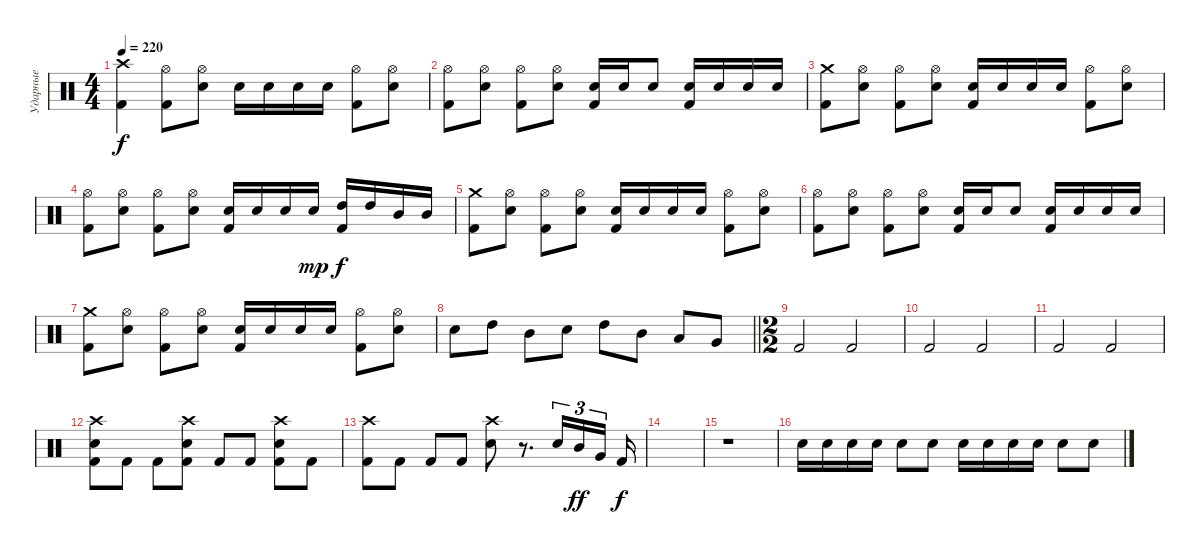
\track ("Ударные" "Ударные") {instrument percussion}
\staff {score}
\articulation defaults
\ts (4 4)
\tempo 220
\clef neutral
\ks c
("Crash high (hit)" "Kick (hit) 2").4{dy f} ("Hi-Hat (open)" "Kick (hit) 2").8 ("Hi-Hat (open)" "Electric Snare (hit)").8 "Electric Snare (hit)".16 "Electric Snare (hit)".16 "Electric Snare (hit)".16 "Electric Snare (hit)".16 ("Hi-Hat (open)" "Kick (hit) 2").8 ("Hi-Hat (open)" "Electric Snare (hit)").8 |
("Hi-Hat (open)" "Kick (hit) 2").8 ("Hi-Hat (open)" "Electric Snare (hit)").8 ("Hi-Hat (open)" "Kick (hit) 2").8 ("Hi-Hat (open)" "Electric Snare (hit)").8 ("Electric Snare (hit)" "Kick (hit) 2").16 "Electric Snare (hit)".16 "Electric Snare (hit)".8 ("Electric Snare (hit)" "Kick (hit) 2").16 "Electric Snare (hit)".16 "Electric Snare (hit)".16 "Electric Snare (hit)".16 |
("Crash medium (hit)" "Kick (hit) 2").8 ("Hi-Hat (open)" "Electric Snare (hit)").8 ("Hi-Hat (open)" "Kick (hit) 2").8 ("Hi-Hat (open)" "Electric Snare (hit)").8 ("Electric Snare (hit)" "Kick (hit) 2").16 "Electric Snare (hit)".16 "Electric Snare (hit)".16 "Electric Snare (hit)".16 ("Hi-Hat (open)" "Kick (hit) 2").8 ("Hi-Hat (open)" "Electric Snare (hit)").8 |
("Hi-Hat (open)" "Kick (hit) 2").8 ("Hi-Hat (open)" "Electric Snare (hit)").8 ("Hi-Hat (open)" "Kick (hit) 2").8 ("Hi-Hat (open)" "Electric Snare (hit)").8 ("Electric Snare (hit)" "Kick (hit) 2").16 "Electric Snare (hit)".16 "Electric Snare (hit)".16 "Electric Snare (hit)".16{dy mp} ("High Tom (hit)" "Kick (hit) 2").16{dy f} "High Tom (hit)".16 "Mid Tom (hit)".16 "Mid Tom (hit)".16 |
("Crash medium (hit)" "Kick (hit) 2").8 ("Hi-Hat (open)" "Electric Snare (hit)").8 ("Hi-Hat (open)" "Kick (hit) 2").8 ("Hi-Hat (open)" "Electric Snare (hit)").8 ("Electric Snare (hit)" "Kick (hit) 2").16 "Electric Snare (hit)".16 "Electric Snare (hit)".16 "Electric Snare (hit)".16 ("Hi-Hat (open)" "Kick (hit) 2").8 ("Hi-Hat (open)" "Electric Snare (hit)").8 |
("Hi-Hat (open)" "Kick (hit) 2").8 ("Hi-Hat (open)" "Electric Snare (hit)").8 ("Hi-Hat (open)" "Kick (hit) 2").8 ("Hi-Hat (open)" "Electric Snare (hit)").8 ("Electric Snare (hit)" "Kick (hit) 2").16 "Electric Snare (hit)".16 "Electric Snare (hit)".8 ("Electric Snare (hit)" "Kick (hit) 2").16 "Electric Snare (hit)".16 "Electric Snare (hit)".16 "Electric Snare (hit)".16 |
("Crash medium (hit)" "Kick (hit) 2").8 ("Hi-Hat (open)" "Electric Snare (hit)").8 ("Hi-Hat (open)" "Kick (hit) 2").8 ("Hi-Hat (open)" "Electric Snare (hit)").8 ("Electric Snare (hit)" "Kick (hit) 2").16 "Electric Snare (hit)".16 "Electric Snare (hit)".16 "Electric Snare (hit)".16 ("Hi-Hat (open)" "Kick (hit) 2").8 ("Hi-Hat (open)" "Electric Snare (hit)").8 |
\barLineRight lightlight "Electric Snare (hit)".8 "High Tom (hit)".8 "Mid Tom (hit)".8 "Electric Snare (hit)".8 "High Tom (hit)".8 "Mid Tom (hit)".8 "Low Tom (hit)".8 "Very Low Tom (hit)".8
|
\ts (2 2)
"Kick (hit) 2".2 "Kick (hit) 2".2 |
"Kick (hit) 2".2 "Kick (hit) 2".2 |
"Kick (hit) 2".2 "Kick (hit) 2".2 |
("Crash high (hit)" "Electric Snare (hit)" "Kick (hit) 2").8 "Kick (hit) 2".8 "Kick (hit) 2".8 ("Crash high (hit)" "Electric Snare (hit)" "Kick (hit) 2").8 "Kick (hit) 2".8 "Kick (hit) 2".8 ("Crash high (hit)" "Electric Snare (hit)" "Kick (hit) 2").8 "Kick (hit) 2".8 |
("Crash high (hit)" "Kick (hit) 2").8 "Kick (hit) 2".8 "Kick (hit) 2".8 "Kick (hit) 2".8 ("Crash high (hit)" "Electric Snare (hit)").8 r.8{d} "Electric Snare (hit)".16{tu (3 2)} "Mid Tom (hit)".16{tu (3 2) dy ff} "Very Low Tom (hit)".16{tu (3 2) beam splitsecondary} "Kick (hit) 2".16{dy f} |
|
r.1 |
"Electric Snare (hit)".16 "Electric Snare (hit)".16 "Electric Snare (hit)".16 "Electric Snare (hit)".16 "Electric Snare (hit)".8 "Electric Snare (hit)".8 "Electric Snare (hit)".16 "Electric Snare (hit)".16 "Electric Snare (hit)".16 "Electric Snare (hit)".16 "Electric Snare (hit)".8 "Electric Snare (hit)".8
